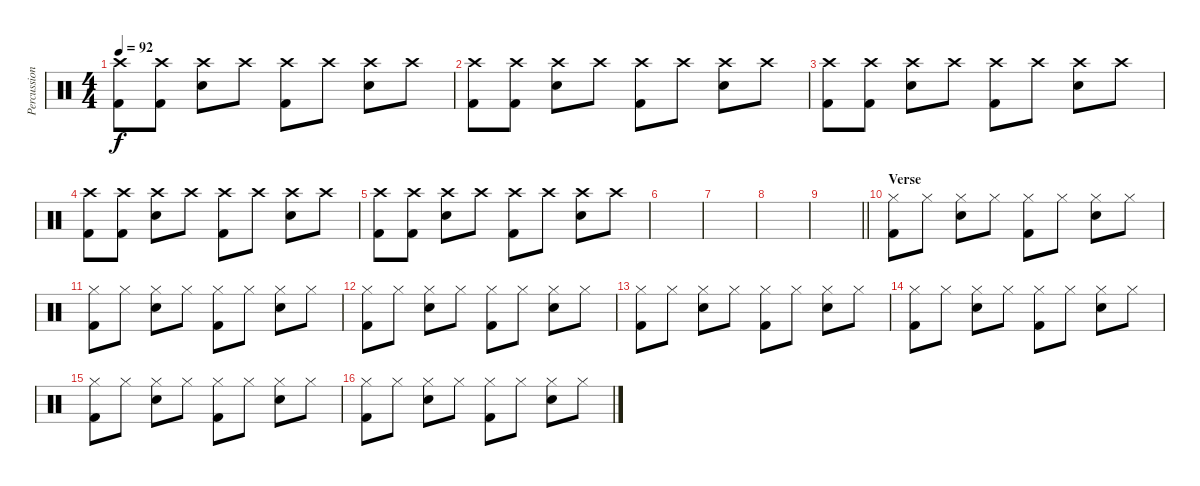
\track ("Percussion" "Percussion") {instrument percussion}
\staff {score}
\articulation defaults
\ts (4 4)
\tempo 92
\clef neutral
\ks c
("Kick (hit) 2" "Crash high (hit)").8{dy f} ("Kick (hit) 2" "Crash high (hit)").8 ("Snare (hit) 2" "Crash high (hit)").8 "Crash high (hit)".8 ("Kick (hit) 2" "Crash high (hit)").8 "Crash high (hit)".8 ("Snare (hit) 2" "Crash high (hit)").8 "Crash high (hit)".8 |
("Kick (hit) 2" "Crash high (hit)").8 ("Kick (hit) 2" "Crash high (hit)").8 ("Snare (hit) 2" "Crash high (hit)").8 "Crash high (hit)".8 ("Kick (hit) 2" "Crash high (hit)").8 "Crash high (hit)".8 ("Snare (hit) 2" "Crash high (hit)").8 "Crash high (hit)".8 |
("Kick (hit) 2" "Crash high (hit)").8 ("Kick (hit) 2" "Crash high (hit)").8 ("Snare (hit) 2" "Crash high (hit)").8 "Crash high (hit)".8 ("Kick (hit) 2" "Crash high (hit)").8 "Crash high (hit)".8 ("Snare (hit) 2" "Crash high (hit)").8 "Crash high (hit)".8 |
("Kick (hit) 2" "Crash high (hit)").8 ("Kick (hit) 2" "Crash high (hit)").8 ("Snare (hit) 2" "Crash high (hit)").8 "Crash high (hit)".8 ("Kick (hit) 2" "Crash high (hit)").8 "Crash high (hit)".8 ("Snare (hit) 2" "Crash high (hit)").8 "Crash high (hit)".8 |
("Kick (hit) 2" "Crash high (hit)").8 ("Kick (hit) 2" "Crash high (hit)").8 ("Snare (hit) 2" "Crash high (hit)").8 "Crash high (hit)".8 ("Kick (hit) 2" "Crash high (hit)").8 "Crash high (hit)".8 ("Snare (hit) 2" "Crash high (hit)").8 "Crash high (hit)".8 |
|
|
|
\barLineRight lightlight
|
\section ("" "Verse")
("Kick (hit) 2" "Hi-Hat (closed)").8 "Hi-Hat (closed)".8 ("Electric Snare (hit)" "Hi-Hat (closed)").8 "Hi-Hat (closed)".8 ("Kick (hit) 2" "Hi-Hat (closed)").8 "Hi-Hat (closed)".8 ("Electric Snare (hit)" "Hi-Hat (closed)").8 "Hi-Hat (closed)".8 |
("Kick (hit) 2" "Hi-Hat (closed)").8 "Hi-Hat (closed)".8 ("Electric Snare (hit)" "Hi-Hat (closed)").8 "Hi-Hat (closed)".8 ("Kick (hit) 2" "Hi-Hat (closed)").8 "Hi-Hat (closed)".8 ("Electric Snare (hit)" "Hi-Hat (closed)").8 "Hi-Hat (closed)".8 |
("Kick (hit) 2" "Hi-Hat (closed)").8 "Hi-Hat (closed)".8 ("Electric Snare (hit)" "Hi-Hat (closed)").8 "Hi-Hat (closed)".8 ("Kick (hit) 2" "Hi-Hat (closed)").8 "Hi-Hat (closed)".8 ("Electric Snare (hit)" "Hi-Hat (closed)").8 "Hi-Hat (closed)".8 |
("Kick (hit) 2" "Hi-Hat (closed)").8 "Hi-Hat (closed)".8 ("Electric Snare (hit)" "Hi-Hat (closed)").8 "Hi-Hat (closed)".8 ("Kick (hit) 2" "Hi-Hat (closed)").8 "Hi-Hat (closed)".8 ("Electric Snare (hit)" "Hi-Hat (closed)").8 "Hi-Hat (closed)".8 |
("Kick (hit) 2" "Hi-Hat (closed)").8 "Hi-Hat (closed)".8 ("Electric Snare (hit)" "Hi-Hat (closed)").8 "Hi-Hat (closed)".8 ("Kick (hit) 2" "Hi-Hat (closed)").8 "Hi-Hat (closed)".8 ("Electric Snare (hit)" "Hi-Hat (closed)").8 "Hi-Hat (closed)".8 |
("Kick (hit) 2" "Hi-Hat (closed)").8 "Hi-Hat (closed)".8 ("Electric Snare (hit)" "Hi-Hat (closed)").8 "Hi-Hat (closed)".8 ("Kick (hit) 2" "Hi-Hat (closed)").8 "Hi-Hat (closed)".8 ("Electric Snare (hit)" "Hi-Hat (closed)").8 "Hi-Hat (closed)".8 |
("Kick (hit) 2" "Hi-Hat (closed)").8 "Hi-Hat (closed)".8 ("Electric Snare (hit)" "Hi-Hat (closed)").8 "Hi-Hat (closed)".8 ("Kick (hit) 2" "Hi-Hat (closed)").8 "Hi-Hat (closed)".8 ("Electric Snare (hit)" "Hi-Hat (closed)").8 "Hi-Hat (closed)".8
